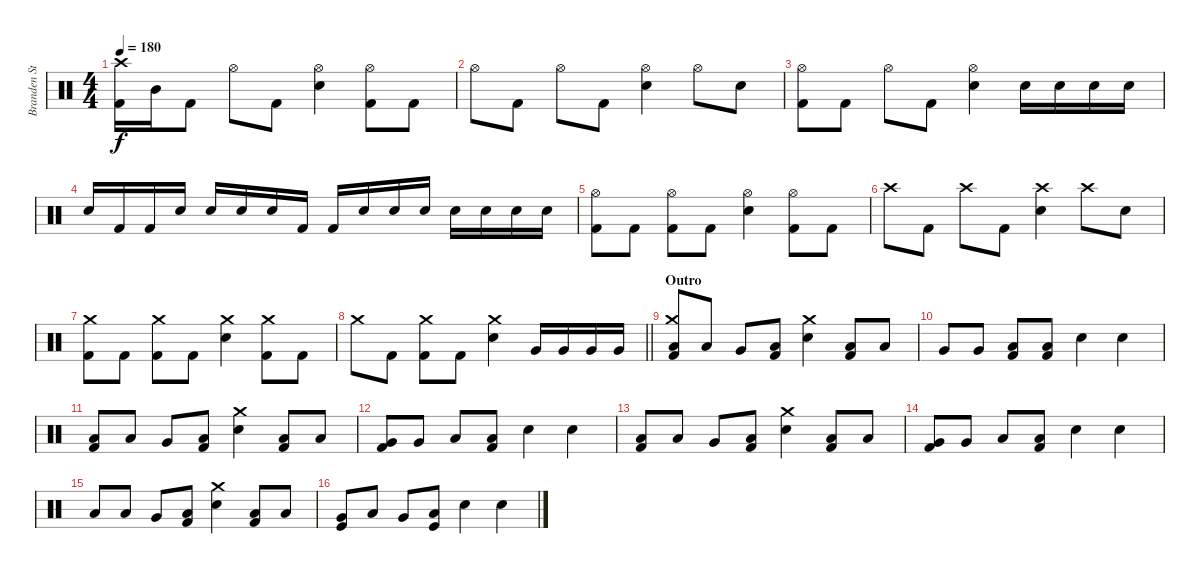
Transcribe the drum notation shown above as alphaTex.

\track ("Branden Steineckert" "Branden St") {instrument percussion}
\staff {score}
\articulation defaults
\ts (4 4)
\tempo 180
\clef neutral
\ks c
("Crash high (hit)" "Kick (hit) 2").16{dy f} "Mid Tom (hit)".16 "Kick (hit) 2".8 "Hi-Hat (open)".8 "Kick (hit) 2".8 ("Hi-Hat (open)" "Electric Snare (hit)").4 ("Hi-Hat (open)" "Kick (hit) 2").8 "Kick (hit) 2".8 |
"Hi-Hat (open)".8 "Kick (hit) 2".8 "Hi-Hat (open)".8 "Kick (hit) 2".8 ("Hi-Hat (open)" "Electric Snare (hit)").4 "Hi-Hat (open)".8 "Electric Snare (hit)".8 |
("Hi-Hat (open)" "Kick (hit) 2").8 "Kick (hit) 2".8 "Hi-Hat (open)".8 "Kick (hit) 2".8 ("Hi-Hat (open)" "Electric Snare (hit)").4 "Electric Snare (hit)".16 "Electric Snare (hit)".16 "Electric Snare (hit)".16 "Electric Snare (hit)".16 |
"Electric Snare (hit)".16 "Kick (hit) 2".16 "Kick (hit) 2".16 "Electric Snare (hit)".16 "Electric Snare (hit)".16 "Electric Snare (hit)".16 "Electric Snare (hit)".16 "Kick (hit) 2".16 "Kick (hit) 2".16 "Electric Snare (hit)".16 "Electric Snare (hit)".16 "Electric Snare (hit)".16 "Electric Snare (hit)".16 "Electric Snare (hit)".16 "Electric Snare (hit)".16 "Electric Snare (hit)".16 |
("Hi-Hat (open)" "Kick (hit) 2").8 "Kick (hit) 2".8 ("Hi-Hat (open)" "Kick (hit) 2").8 "Kick (hit) 2".8 ("Hi-Hat (open)" "Electric Snare (hit)").4 ("Hi-Hat (open)" "Kick (hit) 2").8 "Kick (hit) 2".8 |
"Crash high (hit)".8 "Kick (hit) 2".8 "Crash high (hit)".8 "Kick (hit) 2".8 ("Crash high (hit)" "Electric Snare (hit)").4 "Crash high (hit)".8 "Electric Snare (hit)".8 |
("Crash medium (hit)" "Kick (hit) 2").8 "Kick (hit) 2".8 ("Crash medium (hit)" "Kick (hit) 2").8 "Kick (hit) 2".8 ("Crash medium (hit)" "Electric Snare (hit)").4 ("Crash medium (hit)" "Kick (hit) 2").8 "Kick (hit) 2".8 |
\barLineRight lightlight "Crash medium (hit)".8 "Kick (hit) 2".8
("Crash medium (hit)" "Kick (hit) 2").8 "Kick (hit) 2".8 ("Crash medium (hit)" "Electric Snare (hit)").4 "Very Low Tom (hit)".16 "Very Low Tom (hit)".16 "Very Low Tom (hit)".16 "Very Low Tom (hit)".16 |
\section ("" "Outro")
("Crash medium (hit)" "Low Tom (hit)" "Kick (hit) 2").8 "Low Tom (hit)".8 "Very Low Tom (hit)".8 ("Low Floor Tom (hit)" "Kick (hit) 2").8 ("Crash medium (hit)" "Electric Snare (hit)").4 ("Low Tom (hit)" "Kick (hit) 2").8 "Low Tom (hit)".8 |
"Very Low Tom (hit)".8 "Very Low Tom (hit)".8 ("Low Floor Tom (hit)" "Kick (hit) 2").8 ("Low Floor Tom (hit)" "Kick (hit) 2").8 "Electric Snare (hit)".4 "Electric Snare (hit)".4 |
("Low Tom (hit)" "Kick (hit) 2").8 "Low Tom (hit)".8 "Very Low Tom (hit)".8 ("Low Floor Tom (hit)" "Kick (hit) 2").8 ("Crash medium (hit)" "Electric Snare (hit)").4 ("Low Tom (hit)" "Kick (hit) 2").8 "Low Tom (hit)".8 |
("Very Low Tom (hit)" "Kick (hit) 2").8 "Very Low Tom (hit)".8 "Low Floor Tom (hit)".8 ("Low Floor Tom (hit)" "Kick (hit) 2").8 "Electric Snare (hit)".4 "Electric Snare (hit)".4 |
("Low Tom (hit)" "Kick (hit) 2").8 "Low Tom (hit)".8 "Very Low Tom (hit)".8 ("Low Floor Tom (hit)" "Kick (hit) 2").8 ("Crash medium (hit)" "Electric Snare (hit)").4 ("Low Tom (hit)" "Kick (hit) 2").8 "Low Tom (hit)".8 |
("Very Low Tom (hit)" "Kick (hit) 2").8 "Very Low Tom (hit)".8 "Low Floor Tom (hit)".8 ("Low Floor Tom (hit)" "Kick (hit) 2").8 "Electric Snare (hit)".4 "Electric Snare (hit)".4 |
"Low Tom (hit)".8 "Low Tom (hit)".8 "Very Low Tom (hit)".8 ("Low Floor Tom (hit)" "Kick (hit) 2").8 ("Crash medium (hit)" "Electric Snare (hit)").4 ("Low Tom (hit)" "Kick (hit) 2").8 "Low Tom (hit)".8 |
("Very Low Tom (hit)" "Kick (hit)").8 "Low Tom (hit)".8 "Very Low Tom (hit)".8 ("Low Floor Tom (hit)" "Kick (hit)").8 "Electric Snare (hit)".4 "Electric Snare (hit)".4
